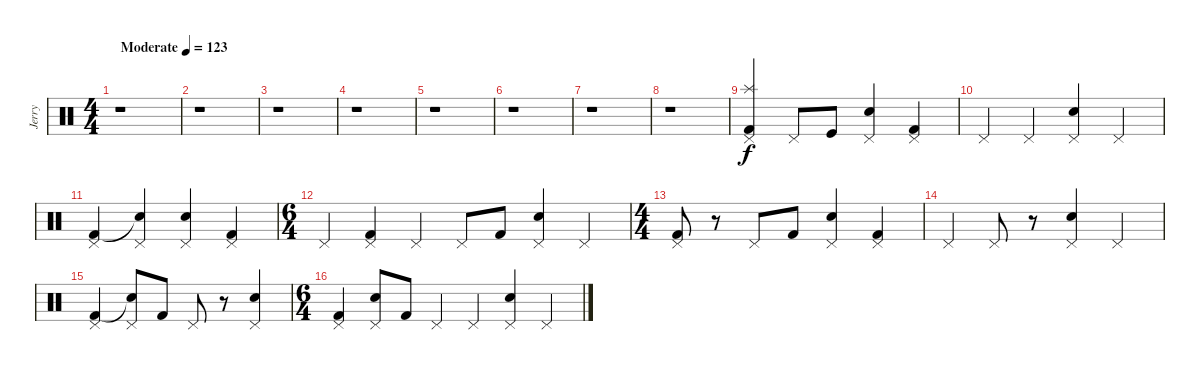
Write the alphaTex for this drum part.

\track ("Jerry" "Jerry") {instrument percussion}
\staff {score}
\articulation defaults
\ts (4 4)
\tempo (123 "Moderate")
\clef neutral
\ks c
r.1{dy f} |
r.1 |
r.1 |
r.1 |
r.1 |
r.1 |
r.1 |
r.1 |
("Pedal Hi-Hat (hit)" "Splash (hit)" "Kick (hit) 2").4{volume 16 balance 8} "Pedal Hi-Hat (hit)".8 "Kick (hit)".8 ("Pedal Hi-Hat (hit)" "Snare (hit) 2").4 ("Pedal Hi-Hat (hit)" "Kick (hit) 2").4 |
"Pedal Hi-Hat (hit)".4 "Pedal Hi-Hat (hit)".4 ("Pedal Hi-Hat (hit)" "Snare (hit) 2").4 "Pedal Hi-Hat (hit)".4 |
("Pedal Hi-Hat (hit)" "Kick (hit) 2").4 ("Pedal Hi-Hat (hit)" "Snare (hit)"{t}).4 ("Pedal Hi-Hat (hit)" "Snare (hit) 2").4 ("Pedal Hi-Hat (hit)" "Kick (hit) 2").4 |
\ts (6 4)
"Pedal Hi-Hat (hit)".4 ("Pedal Hi-Hat (hit)" "Kick (hit) 2").4 "Pedal Hi-Hat (hit)".4 "Pedal Hi-Hat (hit)".8 "Kick (hit) 2".8 ("Pedal Hi-Hat (hit)" "Snare (hit) 2").4 "Pedal Hi-Hat (hit)".4 |
\ts (4 4)
("Pedal Hi-Hat (hit)" "Kick (hit) 2").8 r.8 "Pedal Hi-Hat (hit)".8 "Kick (hit) 2".8 ("Pedal Hi-Hat (hit)" "Snare (hit) 2").4 ("Pedal Hi-Hat (hit)" "Kick (hit) 2").4 |
"Pedal Hi-Hat (hit)".4 "Pedal Hi-Hat (hit)".8 r.8 ("Pedal Hi-Hat (hit)" "Snare (hit) 2").4 "Pedal Hi-Hat (hit)".4 |
("Pedal Hi-Hat (hit)" "Kick (hit) 2").4 ("Pedal Hi-Hat (hit)" "Snare (hit)"{t}).8 "Kick (hit) 2".8 "Pedal Hi-Hat (hit)".8 r.8 ("Pedal Hi-Hat (hit)" "Snare (hit) 2").4 |
\ts (6 4)
("Pedal Hi-Hat (hit)" "Kick (hit) 2").4 ("Pedal Hi-Hat (hit)" "Snare (hit) 2").8 "Kick (hit) 2".8 "Pedal Hi-Hat (hit)".4 "Pedal Hi-Hat (hit)".4 ("Pedal Hi-Hat (hit)" "Snare (hit) 2").4 "Pedal Hi-Hat (hit)".4
